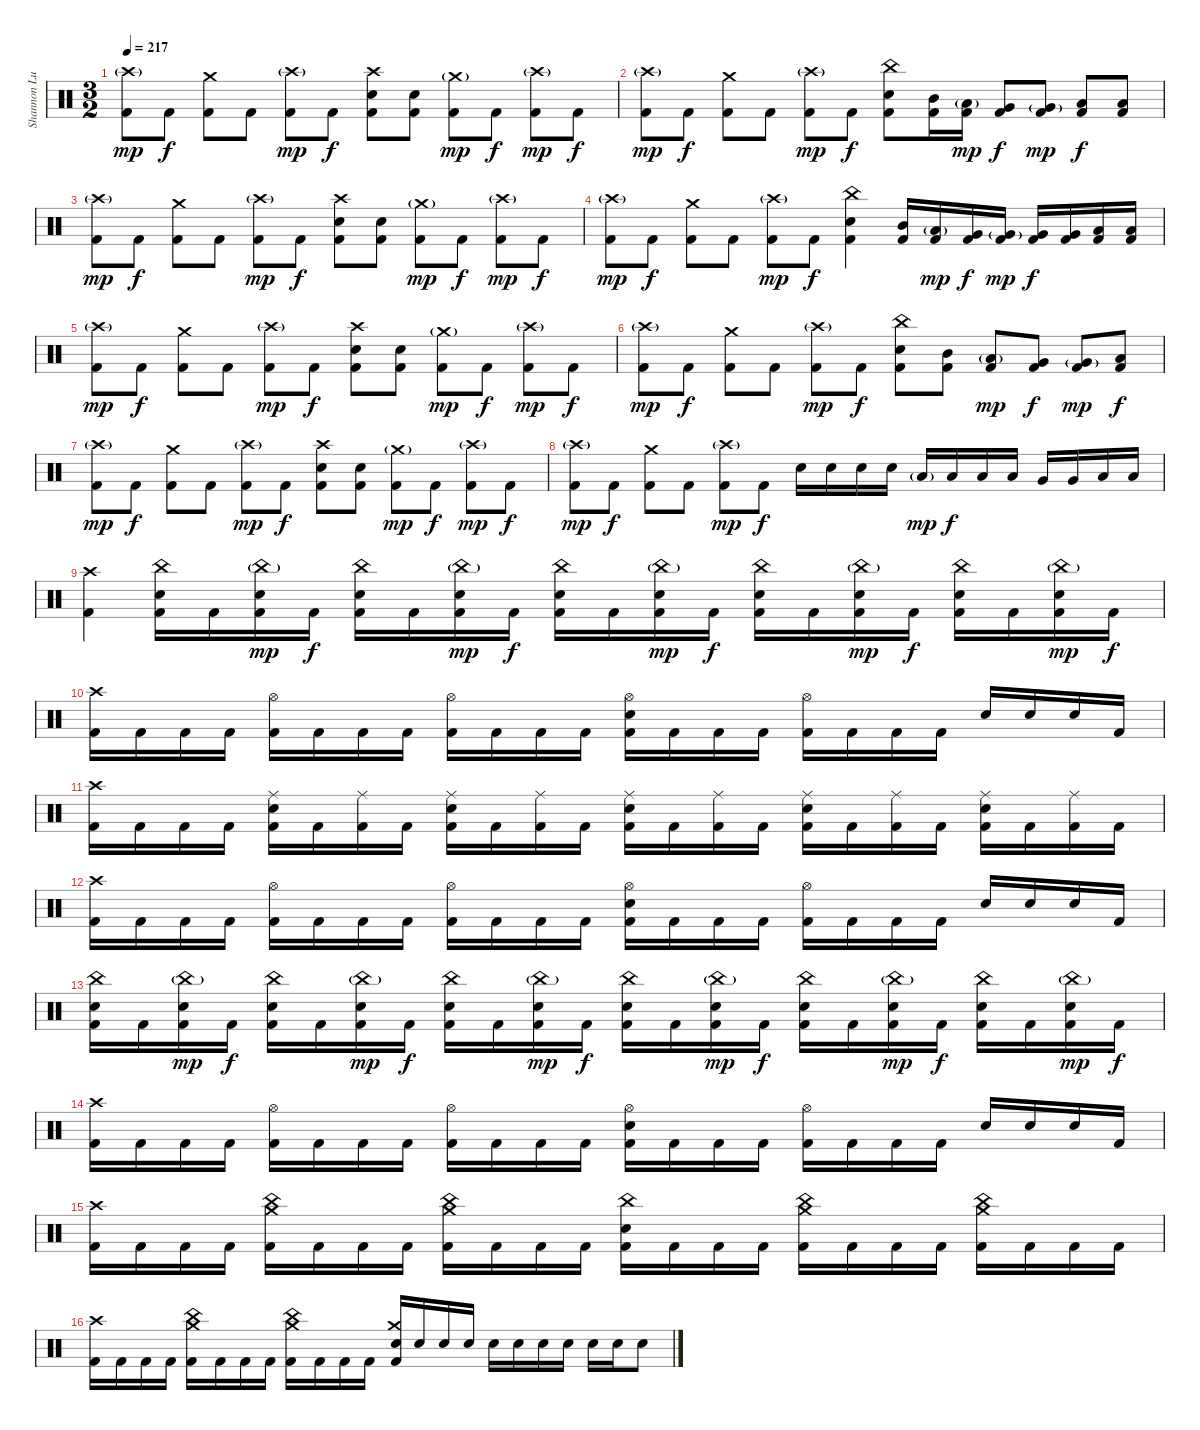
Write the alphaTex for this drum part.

\track ("Shannon Lucas [Drums (Since 2007)]" "Shannon Lu") {instrument percussion}
\staff {score}
\articulation defaults
\ts (3 2)
\tempo 217
\clef neutral
\ks c
("Crash high (hit)"{g} "Kick (hit) 2").8{dy mp} "Kick (hit) 2".8{dy f} ("Crash medium (hit)" "Kick (hit) 2").8 "Kick (hit) 2".8 ("Crash high (hit)"{g} "Kick (hit) 2").8{dy mp} "Kick (hit) 2".8{dy f} ("Crash high (hit)" "Snare (hit) 2" "Kick (hit) 2").8 ("Snare (hit) 2" "Kick (hit) 2").8 ("Crash medium (hit)"{g} "Kick (hit) 2").8{dy mp} "Kick (hit) 2".8{dy f} ("Crash high (hit)"{g} "Kick (hit) 2").8{dy mp} "Kick (hit) 2".8{dy f} |
("Crash high (hit)"{g} "Kick (hit) 2").8{dy mp} "Kick (hit) 2".8{dy f} ("Crash medium (hit)" "Kick (hit) 2").8 "Kick (hit) 2".8 ("Crash high (hit)"{g} "Kick (hit) 2").8{dy mp} "Kick (hit) 2".8{dy f} ("China (hit)" "Snare (hit) 2" "Kick (hit) 2").8 ("Mid Tom (hit)" "Kick (hit) 2").16 ("Low Tom (hit)"{g} "Kick (hit) 2").16{dy mp} ("Very Low Tom (hit)" "Kick (hit) 2").8{dy f} ("Very Low Tom (hit)"{g} "Kick (hit) 2").8{dy mp} ("Low Floor Tom (hit)" "Kick (hit) 2").8{dy f} ("Low Floor Tom (hit)" "Kick (hit) 2").8 |
("Crash high (hit)"{g} "Kick (hit) 2").8{dy mp} "Kick (hit) 2".8{dy f} ("Crash medium (hit)" "Kick (hit) 2").8 "Kick (hit) 2".8 ("Crash high (hit)"{g} "Kick (hit) 2").8{dy mp} "Kick (hit) 2".8{dy f} ("Crash high (hit)" "Snare (hit) 2" "Kick (hit) 2").8 ("Snare (hit) 2" "Kick (hit) 2").8 ("Crash medium (hit)"{g} "Kick (hit) 2").8{dy mp} "Kick (hit) 2".8{dy f} ("Crash high (hit)"{g} "Kick (hit) 2").8{dy mp} "Kick (hit) 2".8{dy f} |
("Crash high (hit)"{g} "Kick (hit) 2").8{dy mp} "Kick (hit) 2".8{dy f} ("Crash medium (hit)" "Kick (hit) 2").8 "Kick (hit) 2".8 ("Crash high (hit)"{g} "Kick (hit) 2").8{dy mp} "Kick (hit) 2".8{dy f} ("China (hit)" "Snare (hit) 2" "Kick (hit) 2").4 ("Mid Tom (hit)" "Kick (hit) 2").16 ("Low Tom (hit)"{g} "Kick (hit) 2").16{dy mp} ("Very Low Tom (hit)" "Kick (hit) 2").16{dy f} ("Very Low Tom (hit)"{g} "Kick (hit) 2").16{dy mp} ("Very Low Tom (hit)" "Kick (hit) 2").16{dy f} ("Very Low Tom (hit)" "Kick (hit) 2").16 ("Low Floor Tom (hit)" "Kick (hit) 2").16 ("Low Floor Tom (hit)" "Kick (hit) 2").16 |
("Crash high (hit)"{g} "Kick (hit) 2").8{dy mp} "Kick (hit) 2".8{dy f} ("Crash medium (hit)" "Kick (hit) 2").8 "Kick (hit) 2".8 ("Crash high (hit)"{g} "Kick (hit) 2").8{dy mp} "Kick (hit) 2".8{dy f} ("Crash high (hit)" "Snare (hit) 2" "Kick (hit) 2").8 ("Snare (hit) 2" "Kick (hit) 2").8 ("Crash medium (hit)"{g} "Kick (hit) 2").8{dy mp} "Kick (hit) 2".8{dy f} ("Crash high (hit)"{g} "Kick (hit) 2").8{dy mp} "Kick (hit) 2".8{dy f} |
("Crash high (hit)"{g} "Kick (hit) 2").8{dy mp} "Kick (hit) 2".8{dy f} ("Crash medium (hit)" "Kick (hit) 2").8 "Kick (hit) 2".8 ("Crash high (hit)"{g} "Kick (hit) 2").8{dy mp} "Kick (hit) 2".8{dy f} ("China (hit)" "Snare (hit) 2" "Kick (hit) 2").8 ("Mid Tom (hit)" "Kick (hit) 2").8 ("Low Tom (hit)"{g} "Kick (hit) 2").8{dy mp} ("Very Low Tom (hit)" "Kick (hit) 2").8{dy f} ("Very Low Tom (hit)"{g} "Kick (hit) 2").8{dy mp} ("Low Floor Tom (hit)" "Kick (hit) 2").8{dy f} |
("Crash high (hit)"{g} "Kick (hit) 2").8{dy mp} "Kick (hit) 2".8{dy f} ("Crash medium (hit)" "Kick (hit) 2").8 "Kick (hit) 2".8 ("Crash high (hit)"{g} "Kick (hit) 2").8{dy mp} "Kick (hit) 2".8{dy f} ("Crash high (hit)" "Snare (hit) 2" "Kick (hit) 2").8 ("Snare (hit) 2" "Kick (hit) 2").8 ("Crash medium (hit)"{g} "Kick (hit) 2").8{dy mp} "Kick (hit) 2".8{dy f} ("Crash high (hit)"{g} "Kick (hit) 2").8{dy mp} "Kick (hit) 2".8{dy f} |
("Crash high (hit)"{g} "Kick (hit) 2").8{dy mp} "Kick (hit) 2".8{dy f} ("Crash medium (hit)" "Kick (hit) 2").8 "Kick (hit) 2".8 ("Crash high (hit)"{g} "Kick (hit) 2").8{dy mp} "Kick (hit) 2".8{dy f} "Snare (hit) 2".16 "Snare (hit) 2".16 "Snare (hit) 2".16 "Snare (hit) 2".16 "Low Tom (hit)"{g}.16{dy mp} "Low Tom (hit)".16{dy f} "Low Tom (hit)".16 "Low Tom (hit)".16 "Very Low Tom (hit)".16 "Very Low Tom (hit)".16 "Low Floor Tom (hit)".16 "Low Floor Tom (hit)".16 |
("Crash high (hit)" "Kick (hit) 2").4 ("China (hit)" "Snare (hit) 2" "Kick (hit) 2").16 "Kick (hit) 2".16 ("China (hit)"{g} "Snare (hit) 2" "Kick (hit) 2").16{dy mp} "Kick (hit) 2".16{dy f} ("China (hit)" "Snare (hit) 2" "Kick (hit) 2").16 "Kick (hit) 2".16 ("China (hit)"{g} "Snare (hit) 2" "Kick (hit) 2").16{dy mp} "Kick (hit) 2".16{dy f} ("China (hit)" "Snare (hit) 2" "Kick (hit) 2").16 "Kick (hit) 2".16 ("China (hit)"{g} "Snare (hit) 2" "Kick (hit) 2").16{dy mp} "Kick (hit) 2".16{dy f} ("China (hit)" "Snare (hit) 2" "Kick (hit) 2").16 "Kick (hit) 2".16 ("China (hit)"{g} "Snare (hit) 2" "Kick (hit) 2").16{dy mp} "Kick (hit) 2".16{dy f} ("China (hit)" "Snare (hit) 2" "Kick (hit) 2").16 "Kick (hit) 2".16 ("China (hit)"{g} "Snare (hit) 2" "Kick (hit) 2").16{dy mp} "Kick (hit) 2".16{dy f} |
("Crash high (hit)" "Kick (hit) 2").16 "Kick (hit) 2".16 "Kick (hit) 2".16 "Kick (hit) 2".16 ("Hi-Hat (open)" "Kick (hit) 2").16 "Kick (hit) 2".16 "Kick (hit) 2".16 "Kick (hit) 2".16 ("Hi-Hat (open)" "Kick (hit) 2").16 "Kick (hit) 2".16 "Kick (hit) 2".16 "Kick (hit) 2".16 ("Hi-Hat (open)" "Snare (hit) 2" "Kick (hit) 2").16 "Kick (hit) 2".16 "Kick (hit) 2".16 "Kick (hit) 2".16 ("Hi-Hat (open)" "Kick (hit) 2").16 "Kick (hit) 2".16 "Kick (hit) 2".16 "Kick (hit) 2".16 "Snare (hit) 2".16 "Snare (hit) 2".16 "Snare (hit) 2".16 "Kick (hit) 2".16 |
("Crash high (hit)" "Kick (hit) 2").16 "Kick (hit) 2".16 "Kick (hit) 2".16 "Kick (hit) 2".16 ("Ride (middle)" "Snare (hit) 2" "Kick (hit) 2").16 "Kick (hit) 2".16 ("Ride (middle)" "Kick (hit) 2").16 "Kick (hit) 2".16 ("Ride (middle)" "Snare (hit) 2" "Kick (hit) 2").16 "Kick (hit) 2".16 ("Ride (middle)" "Kick (hit) 2").16 "Kick (hit) 2".16 ("Ride (middle)" "Snare (hit) 2" "Kick (hit) 2").16 "Kick (hit) 2".16 ("Ride (middle)" "Kick (hit) 2").16 "Kick (hit) 2".16 ("Ride (middle)" "Snare (hit) 2" "Kick (hit) 2").16 "Kick (hit) 2".16 ("Ride (middle)" "Kick (hit) 2").16 "Kick (hit) 2".16 ("Ride (middle)" "Snare (hit) 2" "Kick (hit) 2").16 "Kick (hit) 2".16 ("Ride (middle)" "Kick (hit) 2").16 "Kick (hit) 2".16 |
("Crash high (hit)" "Kick (hit) 2").16 "Kick (hit) 2".16 "Kick (hit) 2".16 "Kick (hit) 2".16 ("Hi-Hat (open)" "Kick (hit) 2").16 "Kick (hit) 2".16 "Kick (hit) 2".16 "Kick (hit) 2".16 ("Hi-Hat (open)" "Kick (hit) 2").16 "Kick (hit) 2".16 "Kick (hit) 2".16 "Kick (hit) 2".16 ("Hi-Hat (open)" "Snare (hit) 2" "Kick (hit) 2").16 "Kick (hit) 2".16 "Kick (hit) 2".16 "Kick (hit) 2".16 ("Hi-Hat (open)" "Kick (hit) 2").16 "Kick (hit) 2".16 "Kick (hit) 2".16 "Kick (hit) 2".16 "Snare (hit) 2".16 "Snare (hit) 2".16 "Snare (hit) 2".16 "Kick (hit) 2".16 |
("China (hit)" "Snare (hit) 2" "Kick (hit) 2").16 "Kick (hit) 2".16 ("China (hit)"{g} "Snare (hit) 2" "Kick (hit) 2").16{dy mp} "Kick (hit) 2".16{dy f} ("China (hit)" "Snare (hit) 2" "Kick (hit) 2").16 "Kick (hit) 2".16 ("China (hit)"{g} "Snare (hit) 2" "Kick (hit) 2").16{dy mp} "Kick (hit) 2".16{dy f} ("China (hit)" "Snare (hit) 2" "Kick (hit) 2").16 "Kick (hit) 2".16 ("China (hit)"{g} "Snare (hit) 2" "Kick (hit) 2").16{dy mp} "Kick (hit) 2".16{dy f} ("China (hit)" "Snare (hit) 2" "Kick (hit) 2").16 "Kick (hit) 2".16 ("China (hit)"{g} "Snare (hit) 2" "Kick (hit) 2").16{dy mp} "Kick (hit) 2".16{dy f} ("China (hit)" "Snare (hit) 2" "Kick (hit) 2").16 "Kick (hit) 2".16 ("China (hit)"{g} "Snare (hit) 2" "Kick (hit) 2").16{dy mp} "Kick (hit) 2".16{dy f} ("China (hit)" "Snare (hit) 2" "Kick (hit) 2").16 "Kick (hit) 2".16 ("China (hit)"{g} "Snare (hit) 2" "Kick (hit) 2").16{dy mp} "Kick (hit) 2".16{dy f} |
("Crash high (hit)" "Kick (hit) 2").16 "Kick (hit) 2".16 "Kick (hit) 2".16 "Kick (hit) 2".16 ("Hi-Hat (open)" "Kick (hit) 2").16 "Kick (hit) 2".16 "Kick (hit) 2".16 "Kick (hit) 2".16 ("Hi-Hat (open)" "Kick (hit) 2").16 "Kick (hit) 2".16 "Kick (hit) 2".16 "Kick (hit) 2".16 ("Hi-Hat (open)" "Snare (hit) 2" "Kick (hit) 2").16 "Kick (hit) 2".16 "Kick (hit) 2".16 "Kick (hit) 2".16 ("Hi-Hat (open)" "Kick (hit) 2").16 "Kick (hit) 2".16 "Kick (hit) 2".16 "Kick (hit) 2".16 "Snare (hit) 2".16 "Snare (hit) 2".16 "Snare (hit) 2".16 "Kick (hit) 2".16 |
("Crash high (hit)" "Kick (hit) 2").16 "Kick (hit) 2".16 "Kick (hit) 2".16 "Kick (hit) 2".16 ("Crash medium (hit)" "China (hit)" "Kick (hit) 2").16 "Kick (hit) 2".16 "Kick (hit) 2".16 "Kick (hit) 2".16 ("Crash medium (hit)" "China (hit)" "Kick (hit) 2").16 "Kick (hit) 2".16 "Kick (hit) 2".16 "Kick (hit) 2".16 ("Snare (hit) 2" "China (hit)" "Kick (hit) 2").16 "Kick (hit) 2".16 "Kick (hit) 2".16 "Kick (hit) 2".16 ("Crash medium (hit)" "China (hit)" "Kick (hit) 2").16 "Kick (hit) 2".16 "Kick (hit) 2".16 "Kick (hit) 2".16 ("Crash medium (hit)" "China (hit)" "Kick (hit) 2").16 "Kick (hit) 2".16 "Kick (hit) 2".16 "Kick (hit) 2".16 |
("Crash high (hit)" "Kick (hit) 2").16 "Kick (hit) 2".16 "Kick (hit) 2".16 "Kick (hit) 2".16 ("Crash medium (hit)" "China (hit)" "Kick (hit) 2").16 "Kick (hit) 2".16 "Kick (hit) 2".16 "Kick (hit) 2".16 ("Crash medium (hit)" "China (hit)" "Kick (hit) 2").16 "Kick (hit) 2".16 "Kick (hit) 2".16 "Kick (hit) 2".16 ("Snare (hit) 2" "Crash medium (hit)" "Kick (hit) 2").16 "Snare (hit) 2".16 "Snare (hit) 2".16 "Snare (hit) 2".16 "Snare (hit) 2".16 "Snare (hit) 2".16 "Snare (hit) 2".16 "Snare (hit) 2".16 "Snare (hit) 2".16 "Snare (hit) 2".16 "Snare (hit) 2".8
